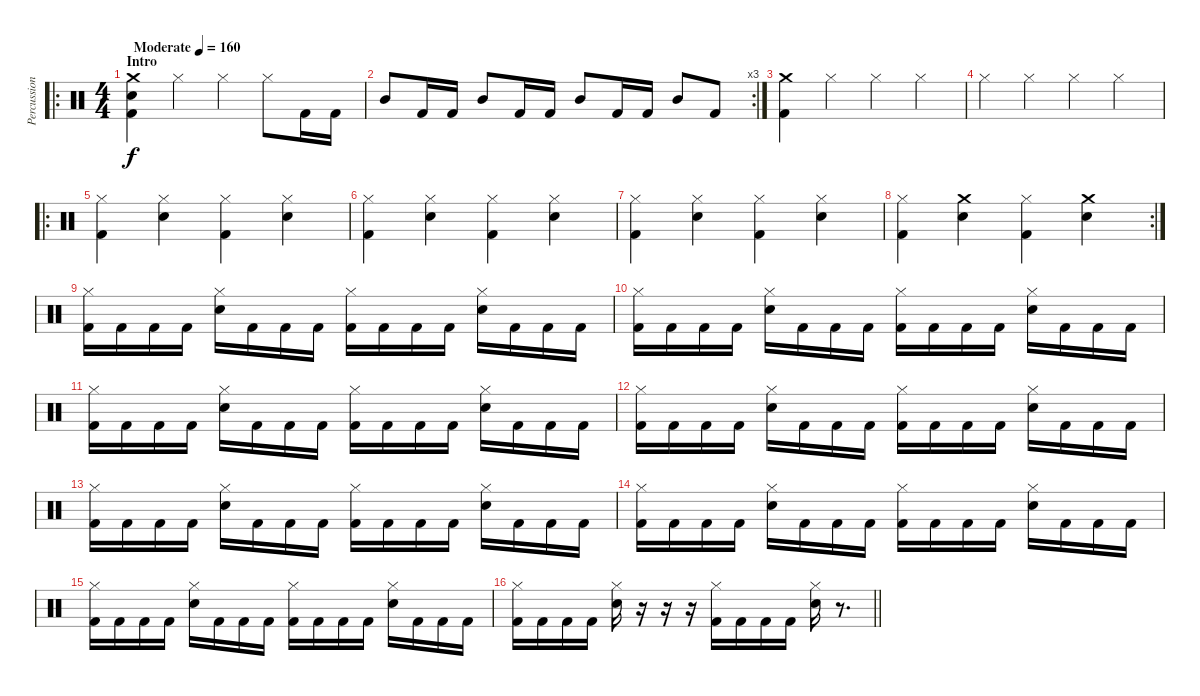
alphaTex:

\track ("Percussion" "Percussion") {instrument percussion}
\staff {score}
\articulation defaults
\ro
\ts (4 4)
\section ("" "Intro")
\tempo (160 "Moderate")
\clef neutral
\ks c
("Crash medium (hit)" "Electric Snare (hit)" "Kick (hit) 2").4{dy f} "Hi-Hat (closed)".4 "Hi-Hat (closed)".4 "Hi-Hat (closed)".8 "Kick (hit) 2".16 "Kick (hit) 2".16 |
\rc 3 "Mid Tom (hit)".8 "Kick (hit) 2".16 "Kick (hit) 2".16 "Mid Tom (hit)".8 "Kick (hit) 2".16 "Kick (hit) 2".16 "Mid Tom (hit)".8 "Kick (hit) 2".16 "Kick (hit) 2".16 "Mid Tom (hit)".8 "Kick (hit) 2".8
|
("Crash medium (hit)" "Kick (hit) 2").4 "Hi-Hat (closed)".4 "Hi-Hat (closed)".4 "Hi-Hat (closed)".4 |
"Hi-Hat (closed)".4 "Hi-Hat (closed)".4 "Hi-Hat (closed)".4 "Hi-Hat (closed)".4 |
\ro
("Hi-Hat (closed)" "Kick (hit) 2").4 ("Hi-Hat (closed)" "Electric Snare (hit)").4 ("Hi-Hat (closed)" "Kick (hit) 2").4 ("Hi-Hat (closed)" "Electric Snare (hit)").4 |
("Hi-Hat (closed)" "Kick (hit) 2").4 ("Hi-Hat (closed)" "Electric Snare (hit)").4 ("Hi-Hat (closed)" "Kick (hit) 2").4 ("Hi-Hat (closed)" "Electric Snare (hit)").4 |
("Hi-Hat (closed)" "Kick (hit) 2").4 ("Hi-Hat (closed)" "Electric Snare (hit)").4 ("Hi-Hat (closed)" "Kick (hit) 2").4 ("Hi-Hat (closed)" "Electric Snare (hit)").4 |
\rc 2
("Hi-Hat (closed)" "Kick (hit) 2").4 ("Crash medium (hit)" "Electric Snare (hit)").4 ("Hi-Hat (closed)" "Kick (hit) 2").4 ("Crash medium (hit)" "Electric Snare (hit)").4 |
("Hi-Hat (closed)" "Kick (hit) 2").16 "Kick (hit) 2".16 "Kick (hit) 2".16 "Kick (hit) 2".16 ("Hi-Hat (closed)" "Electric Snare (hit)").16 "Kick (hit) 2".16 "Kick (hit) 2".16 "Kick (hit) 2".16 ("Hi-Hat (closed)" "Kick (hit) 2").16 "Kick (hit) 2".16 "Kick (hit) 2".16 "Kick (hit) 2".16 ("Hi-Hat (closed)" "Electric Snare (hit)").16 "Kick (hit) 2".16 "Kick (hit) 2".16 "Kick (hit) 2".16 |
("Hi-Hat (closed)" "Kick (hit) 2").16 "Kick (hit) 2".16 "Kick (hit) 2".16 "Kick (hit) 2".16 ("Hi-Hat (closed)" "Electric Snare (hit)").16 "Kick (hit) 2".16 "Kick (hit) 2".16 "Kick (hit) 2".16 ("Hi-Hat (closed)" "Kick (hit) 2").16 "Kick (hit) 2".16 "Kick (hit) 2".16 "Kick (hit) 2".16 ("Hi-Hat (closed)" "Electric Snare (hit)").16 "Kick (hit) 2".16 "Kick (hit) 2".16 "Kick (hit) 2".16 |
("Hi-Hat (closed)" "Kick (hit) 2").16 "Kick (hit) 2".16 "Kick (hit) 2".16 "Kick (hit) 2".16 ("Hi-Hat (closed)" "Electric Snare (hit)").16 "Kick (hit) 2".16 "Kick (hit) 2".16 "Kick (hit) 2".16 ("Hi-Hat (closed)" "Kick (hit) 2").16 "Kick (hit) 2".16 "Kick (hit) 2".16 "Kick (hit) 2".16 ("Hi-Hat (closed)" "Electric Snare (hit)").16 "Kick (hit) 2".16 "Kick (hit) 2".16 "Kick (hit) 2".16 |
("Hi-Hat (closed)" "Kick (hit) 2").16 "Kick (hit) 2".16 "Kick (hit) 2".16 "Kick (hit) 2".16 ("Hi-Hat (closed)" "Electric Snare (hit)").16 "Kick (hit) 2".16 "Kick (hit) 2".16 "Kick (hit) 2".16 ("Hi-Hat (closed)" "Kick (hit) 2").16 "Kick (hit) 2".16 "Kick (hit) 2".16 "Kick (hit) 2".16 ("Hi-Hat (closed)" "Electric Snare (hit)").16 "Kick (hit) 2".16 "Kick (hit) 2".16 "Kick (hit) 2".16 |
("Hi-Hat (closed)" "Kick (hit) 2").16 "Kick (hit) 2".16 "Kick (hit) 2".16 "Kick (hit) 2".16 ("Hi-Hat (closed)" "Electric Snare (hit)").16 "Kick (hit) 2".16 "Kick (hit) 2".16 "Kick (hit) 2".16 ("Hi-Hat (closed)" "Kick (hit) 2").16 "Kick (hit) 2".16 "Kick (hit) 2".16 "Kick (hit) 2".16 ("Hi-Hat (closed)" "Electric Snare (hit)").16 "Kick (hit) 2".16 "Kick (hit) 2".16 "Kick (hit) 2".16 |
("Hi-Hat (closed)" "Kick (hit) 2").16 "Kick (hit) 2".16 "Kick (hit) 2".16 "Kick (hit) 2".16 ("Hi-Hat (closed)" "Electric Snare (hit)").16 "Kick (hit) 2".16 "Kick (hit) 2".16 "Kick (hit) 2".16 ("Hi-Hat (closed)" "Kick (hit) 2").16 "Kick (hit) 2".16 "Kick (hit) 2".16 "Kick (hit) 2".16 ("Hi-Hat (closed)" "Electric Snare (hit)").16 "Kick (hit) 2".16 "Kick (hit) 2".16 "Kick (hit) 2".16 |
("Hi-Hat (closed)" "Kick (hit) 2").16 "Kick (hit) 2".16 "Kick (hit) 2".16 "Kick (hit) 2".16 ("Hi-Hat (closed)" "Electric Snare (hit)").16 "Kick (hit) 2".16 "Kick (hit) 2".16 "Kick (hit) 2".16 ("Hi-Hat (closed)" "Kick (hit) 2").16 "Kick (hit) 2".16 "Kick (hit) 2".16 "Kick (hit) 2".16 ("Hi-Hat (closed)" "Electric Snare (hit)").16 "Kick (hit) 2".16 "Kick (hit) 2".16 "Kick (hit) 2".16 |
\barLineRight lightlight
("Hi-Hat (closed)" "Kick (hit) 2").16 "Kick (hit) 2".16 "Kick (hit) 2".16 "Kick (hit) 2".16 ("Hi-Hat (closed)" "Electric Snare (hit)").16 r.16 r.16 r.16 ("Hi-Hat (closed)" "Kick (hit) 2").16 "Kick (hit) 2".16 "Kick (hit) 2".16 "Kick (hit) 2".16 ("Hi-Hat (closed)" "Electric Snare (hit)").16 r.8{d}
